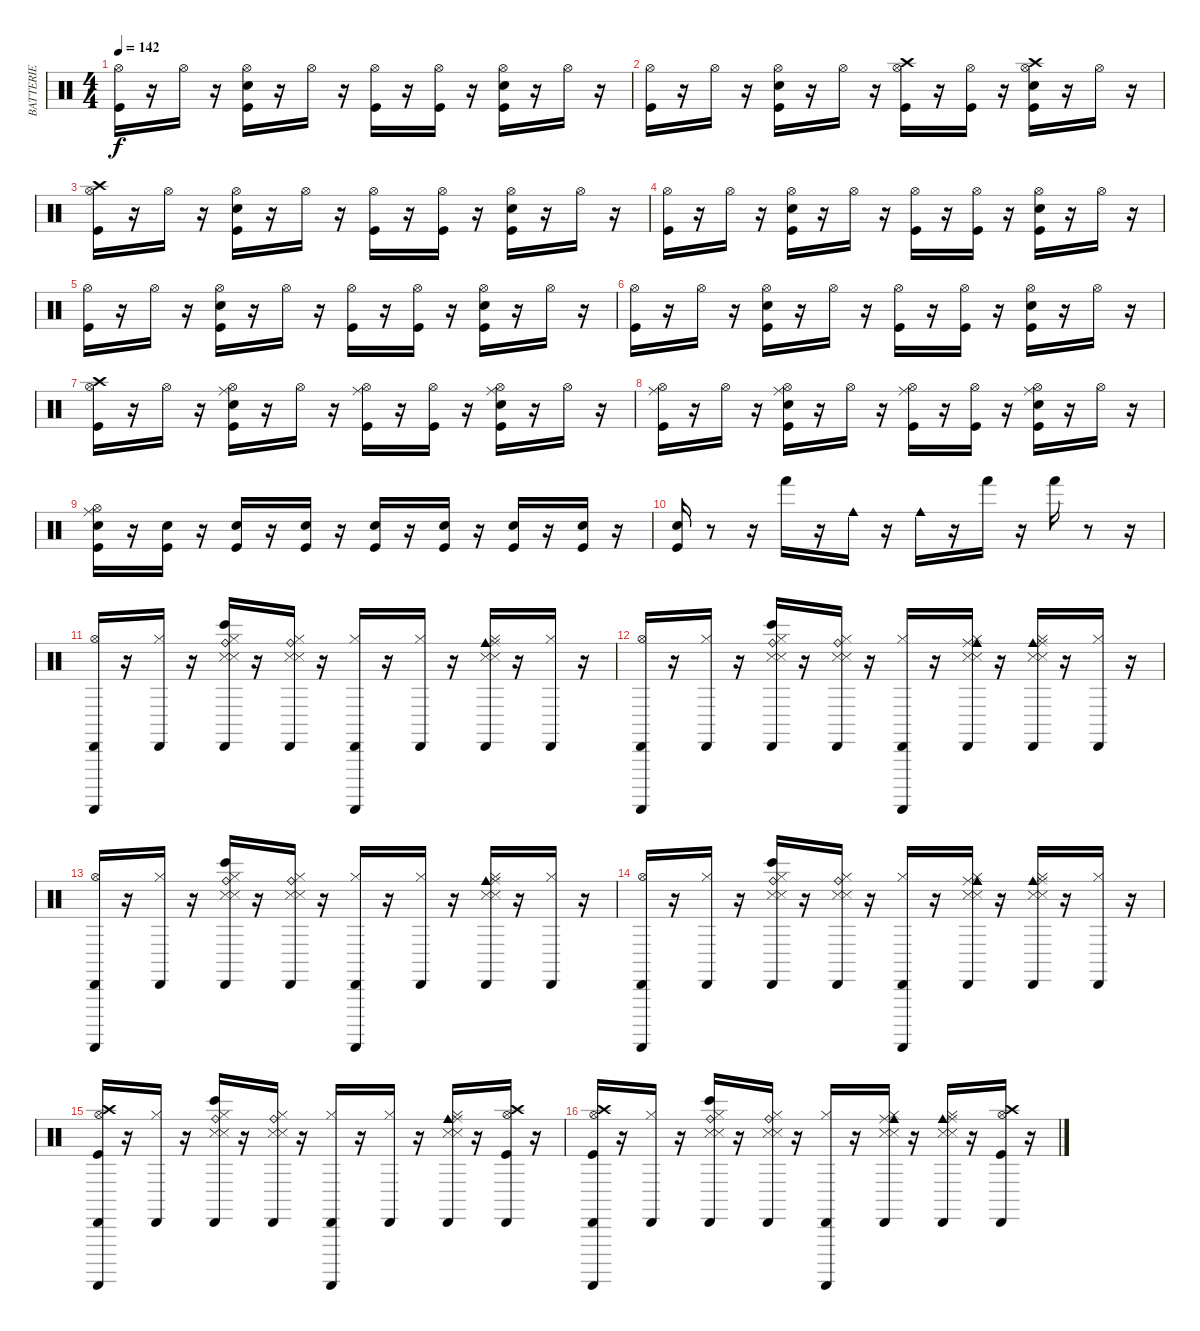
\track ("BATTERIE" "BATTERIE") {instrument percussion}
\staff {score}
\articulation defaults
\ts (4 4)
\tempo 142
\clef neutral
\ks c
("Hi-Hat (open)" "Kick (hit)").16{dy f} r.16 "Hi-Hat (open)".16 r.16 ("Snare (hit) 2" "Kick (hit)" "Hi-Hat (open)").16 r.16 "Hi-Hat (open)".16 r.16 ("Kick (hit)" "Hi-Hat (open)").16 r.16 ("Kick (hit)" "Hi-Hat (open)").16 r.16 ("Kick (hit)" "Snare (hit) 2" "Hi-Hat (open)").16 r.16 "Hi-Hat (open)".16 r.16 |
("Hi-Hat (open)" "Kick (hit)").16 r.16 "Hi-Hat (open)".16 r.16 ("Snare (hit) 2" "Kick (hit)" "Hi-Hat (open)").16 r.16 "Hi-Hat (open)".16 r.16 ("Kick (hit)" "Hi-Hat (open)" "Crash high (hit)").16 r.16 ("Kick (hit)" "Hi-Hat (open)").16 r.16 ("Kick (hit)" "Snare (hit) 2" "Hi-Hat (open)" "Crash high (hit)").16 r.16 "Hi-Hat (open)".16 r.16 |
("Hi-Hat (open)" "Kick (hit)" "Crash high (hit)").16 r.16 "Hi-Hat (open)".16 r.16 ("Snare (hit) 2" "Kick (hit)" "Hi-Hat (open)").16 r.16 "Hi-Hat (open)".16 r.16 ("Kick (hit)" "Hi-Hat (open)").16 r.16 ("Kick (hit)" "Hi-Hat (open)").16 r.16 ("Kick (hit)" "Snare (hit) 2" "Hi-Hat (open)").16 r.16 "Hi-Hat (open)".16 r.16 |
("Hi-Hat (open)" "Kick (hit)").16 r.16 "Hi-Hat (open)".16 r.16 ("Snare (hit) 2" "Kick (hit)" "Hi-Hat (open)").16 r.16 "Hi-Hat (open)".16 r.16 ("Kick (hit)" "Hi-Hat (open)").16 r.16 ("Kick (hit)" "Hi-Hat (open)").16 r.16 ("Kick (hit)" "Snare (hit) 2" "Hi-Hat (open)").16 r.16 "Hi-Hat (open)".16 r.16 |
("Hi-Hat (open)" "Kick (hit)").16 r.16 "Hi-Hat (open)".16 r.16 ("Snare (hit) 2" "Kick (hit)" "Hi-Hat (open)").16 r.16 "Hi-Hat (open)".16 r.16 ("Kick (hit)" "Hi-Hat (open)").16 r.16 ("Kick (hit)" "Hi-Hat (open)").16 r.16 ("Kick (hit)" "Snare (hit) 2" "Hi-Hat (open)").16 r.16 "Hi-Hat (open)".16 r.16 |
("Hi-Hat (open)" "Kick (hit)").16 r.16 "Hi-Hat (open)".16 r.16 ("Snare (hit) 2" "Kick (hit)" "Hi-Hat (open)").16 r.16 "Hi-Hat (open)".16 r.16 ("Kick (hit)" "Hi-Hat (open)").16 r.16 ("Kick (hit)" "Hi-Hat (open)").16 r.16 ("Kick (hit)" "Snare (hit) 2" "Hi-Hat (open)").16 r.16 "Hi-Hat (open)".16 r.16 |
("Hi-Hat (open)" "Kick (hit)" "Crash high (hit)").16 r.16 "Hi-Hat (open)".16 r.16 ("Snare (hit) 2" "Kick (hit)" "Hi-Hat (open)" "Ride (middle)").16 r.16 "Hi-Hat (open)".16 r.16 ("Kick (hit)" "Hi-Hat (open)" "Ride (middle)").16 r.16 ("Kick (hit)" "Hi-Hat (open)").16 r.16 ("Kick (hit)" "Snare (hit) 2" "Hi-Hat (open)" "Ride (middle)").16 r.16 "Hi-Hat (open)".16 r.16 |
("Hi-Hat (open)" "Kick (hit)" "Ride (middle)").16 r.16 "Hi-Hat (open)".16 r.16 ("Snare (hit) 2" "Kick (hit)" "Hi-Hat (open)" "Ride (middle)").16 r.16 "Hi-Hat (open)".16 r.16 ("Kick (hit)" "Hi-Hat (open)" "Ride (middle)").16 r.16 ("Kick (hit)" "Hi-Hat (open)").16 r.16 ("Kick (hit)" "Snare (hit) 2" "Hi-Hat (open)" "Ride (middle)").16 r.16 "Hi-Hat (open)".16 r.16 |
("Hi-Hat (open)" "Kick (hit)" "Snare (hit) 2" "Ride (middle)").16 r.16 ("Kick (hit)" "Snare (hit) 2").16 r.16 ("Kick (hit)" "Snare (hit) 2").16 r.16 ("Kick (hit)" "Snare (hit) 2").16 r.16 ("Kick (hit)" "Snare (hit) 2").16 r.16 ("Kick (hit)" "Snare (hit) 2").16 r.16 ("Kick (hit)" "Snare (hit) 2").16 r.16 ("Kick (hit)" "Snare (hit) 2").16 r.16 |
("Kick (hit)" "Snare (hit) 2").16 r.8 r.16 "Hand (hit)".16 r.16 "Cowbell medium (hit)".16 r.16 "Cowbell medium (hit)".16 r.16 "Hand (hit)".16 r.16 "Hand (hit)".16 r.8 r.16 |
("Guiro (scrap-return)" "Hi-Hat (open)" "Cabasa (hit)").16 r.16 ("Hi-Hat (closed)" "Cabasa (hit)").16 r.16 ("Hi-Hat (closed)" "Cabasa (hit)" "Bongo High (hit)" "Ride (bell)" "Metronome (hit)" "Snare (side stick) 3").16 r.16 ("Hi-Hat (closed)" "Cabasa (hit)" "Ride (bell)" "Metronome (hit)" "Snare (side stick) 3").16 r.16 ("Guiro (scrap-return)" "Hi-Hat (closed)" "Cabasa (hit)").16 r.16 ("Hi-Hat (closed)" "Cabasa (hit)").16 r.16 ("Hi-Hat (closed)" "Cabasa (hit)" "Cowbell medium (hit)" "Ride (middle)" "Metronome (hit)" "Snare (side stick) 3").16 r.16 ("Hi-Hat (closed)" "Cabasa (hit)").16 r.16 |
("Cabasa (hit)" "Hi-Hat (open)" "Guiro (scrap-return)").16 r.16 ("Hi-Hat (closed)" "Cabasa (hit)").16 r.16 ("Hi-Hat (closed)" "Cabasa (hit)" "Bongo High (hit)" "Ride (bell)" "Metronome (hit)" "Snare (side stick) 3").16 r.16 ("Hi-Hat (closed)" "Cabasa (hit)" "Ride (bell)" "Metronome (hit)" "Snare (side stick) 3").16 r.16 ("Guiro (scrap-return)" "Hi-Hat (closed)" "Cabasa (hit)").16 r.16 ("Hi-Hat (closed)" "Cabasa (hit)" "Ride (middle)" "Cowbell medium (hit)" "Snare (side stick) 3" "Metronome (hit)").16 r.16 ("Hi-Hat (closed)" "Cabasa (hit)" "Cowbell medium (hit)" "Ride (middle)" "Metronome (hit)" "Snare (side stick) 3").16 r.16 ("Hi-Hat (closed)" "Cabasa (hit)").16 r.16 |
("Cabasa (hit)" "Hi-Hat (open)" "Guiro (scrap-return)").16 r.16 ("Hi-Hat (closed)" "Cabasa (hit)").16 r.16 ("Hi-Hat (closed)" "Cabasa (hit)" "Bongo High (hit)" "Ride (bell)" "Metronome (hit)" "Snare (side stick) 3").16 r.16 ("Hi-Hat (closed)" "Cabasa (hit)" "Ride (bell)" "Metronome (hit)" "Snare (side stick) 3").16 r.16 ("Guiro (scrap-return)" "Hi-Hat (closed)" "Cabasa (hit)").16 r.16 ("Hi-Hat (closed)" "Cabasa (hit)").16 r.16 ("Hi-Hat (closed)" "Cabasa (hit)" "Cowbell medium (hit)" "Ride (middle)" "Metronome (hit)" "Snare (side stick) 3").16 r.16 ("Hi-Hat (closed)" "Cabasa (hit)").16 r.16 |
("Cabasa (hit)" "Hi-Hat (open)" "Guiro (scrap-return)").16 r.16 ("Hi-Hat (closed)" "Cabasa (hit)").16 r.16 ("Hi-Hat (closed)" "Cabasa (hit)" "Bongo High (hit)" "Ride (bell)" "Metronome (hit)" "Snare (side stick) 3").16 r.16 ("Hi-Hat (closed)" "Cabasa (hit)" "Ride (bell)" "Metronome (hit)" "Snare (side stick) 3").16 r.16 ("Guiro (scrap-return)" "Hi-Hat (closed)" "Cabasa (hit)").16 r.16 ("Hi-Hat (closed)" "Cabasa (hit)" "Ride (middle)" "Cowbell medium (hit)" "Snare (side stick) 3" "Metronome (hit)").16 r.16 ("Hi-Hat (closed)" "Cabasa (hit)" "Cowbell medium (hit)" "Ride (middle)" "Metronome (hit)" "Snare (side stick) 3").16 r.16 ("Hi-Hat (closed)" "Cabasa (hit)").16 r.16 |
("Cabasa (hit)" "Hi-Hat (open)" "Guiro (scrap-return)" "Crash high (hit)" "Kick (hit)").16 r.16 ("Hi-Hat (closed)" "Cabasa (hit)").16 r.16 ("Hi-Hat (closed)" "Cabasa (hit)" "Bongo High (hit)" "Ride (bell)" "Metronome (hit)" "Snare (side stick) 3").16 r.16 ("Hi-Hat (closed)" "Cabasa (hit)" "Ride (bell)" "Metronome (hit)" "Snare (side stick) 3").16 r.16 ("Guiro (scrap-return)" "Hi-Hat (closed)" "Cabasa (hit)").16 r.16 ("Hi-Hat (closed)" "Cabasa (hit)").16 r.16 ("Hi-Hat (closed)" "Cabasa (hit)" "Cowbell medium (hit)" "Ride (middle)" "Metronome (hit)" "Snare (side stick) 3").16 r.16 ("Cabasa (hit)" "Kick (hit)" "Hi-Hat (open)" "Crash high (hit)").16 r.16 |
("Cabasa (hit)" "Hi-Hat (open)" "Guiro (scrap-return)" "Kick (hit)" "Crash high (hit)").16 r.16 ("Hi-Hat (closed)" "Cabasa (hit)").16 r.16 ("Hi-Hat (closed)" "Cabasa (hit)" "Bongo High (hit)" "Ride (bell)" "Metronome (hit)" "Snare (side stick) 3").16 r.16 ("Hi-Hat (closed)" "Cabasa (hit)" "Ride (bell)" "Metronome (hit)" "Snare (side stick) 3").16 r.16 ("Guiro (scrap-return)" "Hi-Hat (closed)" "Cabasa (hit)").16 r.16 ("Hi-Hat (closed)" "Cabasa (hit)" "Ride (middle)" "Cowbell medium (hit)" "Snare (side stick) 3" "Metronome (hit)").16 r.16 ("Hi-Hat (closed)" "Cabasa (hit)" "Cowbell medium (hit)" "Ride (middle)" "Metronome (hit)" "Snare (side stick) 3").16 r.16 ("Cabasa (hit)" "Crash high (hit)" "Hi-Hat (open)" "Kick (hit)").16 r.16
